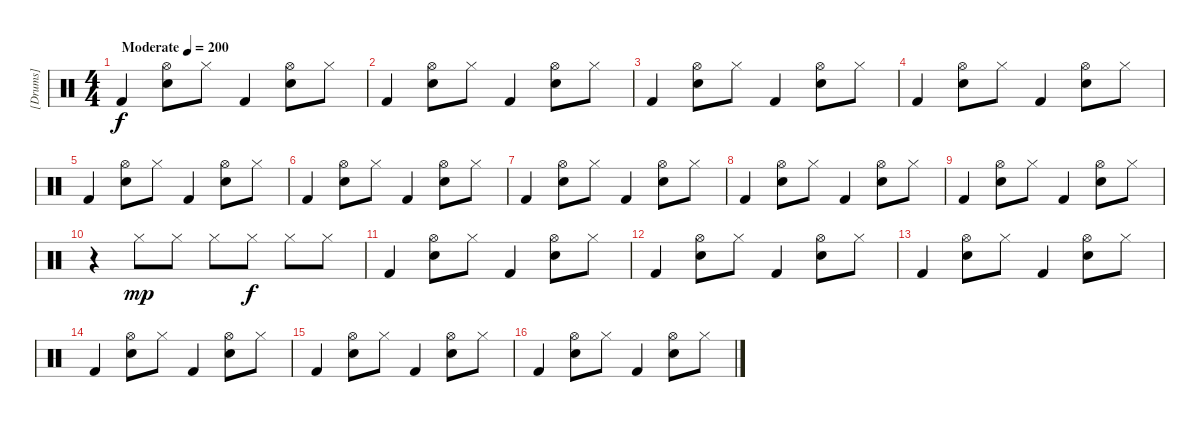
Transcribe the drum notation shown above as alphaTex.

\track ("[Drums]" "[Drums]") {instrument percussion}
\staff {score}
\articulation defaults
\ts (4 4)
\tempo (200 "Moderate")
\clef neutral
\ks c "Kick (hit) 2".4{dy f}
("Hi-Hat (open)" "Electric Snare (hit)").8 "Hi-Hat (closed)".8 "Kick (hit) 2".4 ("Hi-Hat (open)" "Electric Snare (hit)").8 "Hi-Hat (closed)".8 |
"Kick (hit) 2".4 ("Hi-Hat (open)" "Electric Snare (hit)").8 "Hi-Hat (closed)".8 "Kick (hit) 2".4 ("Hi-Hat (open)" "Electric Snare (hit)").8 "Hi-Hat (closed)".8 |
"Kick (hit) 2".4 ("Hi-Hat (open)" "Electric Snare (hit)").8 "Hi-Hat (closed)".8 "Kick (hit) 2".4 ("Hi-Hat (open)" "Electric Snare (hit)").8 "Hi-Hat (closed)".8 |
"Kick (hit) 2".4 ("Hi-Hat (open)" "Electric Snare (hit)").8 "Hi-Hat (closed)".8 "Kick (hit) 2".4 ("Hi-Hat (open)" "Electric Snare (hit)").8 "Hi-Hat (closed)".8 |
"Kick (hit) 2".4 ("Hi-Hat (open)" "Electric Snare (hit)").8 "Hi-Hat (closed)".8 "Kick (hit) 2".4 ("Hi-Hat (open)" "Electric Snare (hit)").8 "Hi-Hat (closed)".8 |
"Kick (hit) 2".4 ("Hi-Hat (open)" "Electric Snare (hit)").8 "Hi-Hat (closed)".8 "Kick (hit) 2".4 ("Hi-Hat (open)" "Electric Snare (hit)").8 "Hi-Hat (closed)".8 |
"Kick (hit) 2".4 ("Hi-Hat (open)" "Electric Snare (hit)").8 "Hi-Hat (closed)".8 "Kick (hit) 2".4 ("Hi-Hat (open)" "Electric Snare (hit)").8 "Hi-Hat (closed)".8 |
"Kick (hit) 2".4 ("Hi-Hat (open)" "Electric Snare (hit)").8 "Hi-Hat (closed)".8 "Kick (hit) 2".4 ("Hi-Hat (open)" "Electric Snare (hit)").8 "Hi-Hat (closed)".8 |
"Kick (hit) 2".4 ("Hi-Hat (open)" "Electric Snare (hit)").8 "Hi-Hat (closed)".8 "Kick (hit) 2".4 ("Hi-Hat (open)" "Electric Snare (hit)").8 "Hi-Hat (closed)".8 |
r.4 "Hi-Hat (closed)".8{dy mp} "Hi-Hat (closed)".8 "Hi-Hat (closed)".8 "Hi-Hat (closed)".8{dy f} "Hi-Hat (closed)".8 "Hi-Hat (closed)".8 |
"Kick (hit) 2".4 ("Hi-Hat (open)" "Electric Snare (hit)").8 "Hi-Hat (closed)".8 "Kick (hit) 2".4 ("Hi-Hat (open)" "Electric Snare (hit)").8 "Hi-Hat (closed)".8 |
"Kick (hit) 2".4 ("Hi-Hat (open)" "Electric Snare (hit)").8 "Hi-Hat (closed)".8 "Kick (hit) 2".4 ("Hi-Hat (open)" "Electric Snare (hit)").8 "Hi-Hat (closed)".8 |
"Kick (hit) 2".4 ("Hi-Hat (open)" "Electric Snare (hit)").8 "Hi-Hat (closed)".8 "Kick (hit) 2".4 ("Hi-Hat (open)" "Electric Snare (hit)").8 "Hi-Hat (closed)".8 |
"Kick (hit) 2".4 ("Hi-Hat (open)" "Electric Snare (hit)").8 "Hi-Hat (closed)".8 "Kick (hit) 2".4 ("Hi-Hat (open)" "Electric Snare (hit)").8 "Hi-Hat (closed)".8 |
"Kick (hit) 2".4 ("Hi-Hat (open)" "Electric Snare (hit)").8 "Hi-Hat (closed)".8 "Kick (hit) 2".4 ("Hi-Hat (open)" "Electric Snare (hit)").8 "Hi-Hat (closed)".8 |
"Kick (hit) 2".4 ("Hi-Hat (open)" "Electric Snare (hit)").8 "Hi-Hat (closed)".8 "Kick (hit) 2".4 ("Hi-Hat (open)" "Electric Snare (hit)").8 "Hi-Hat (closed)".8
